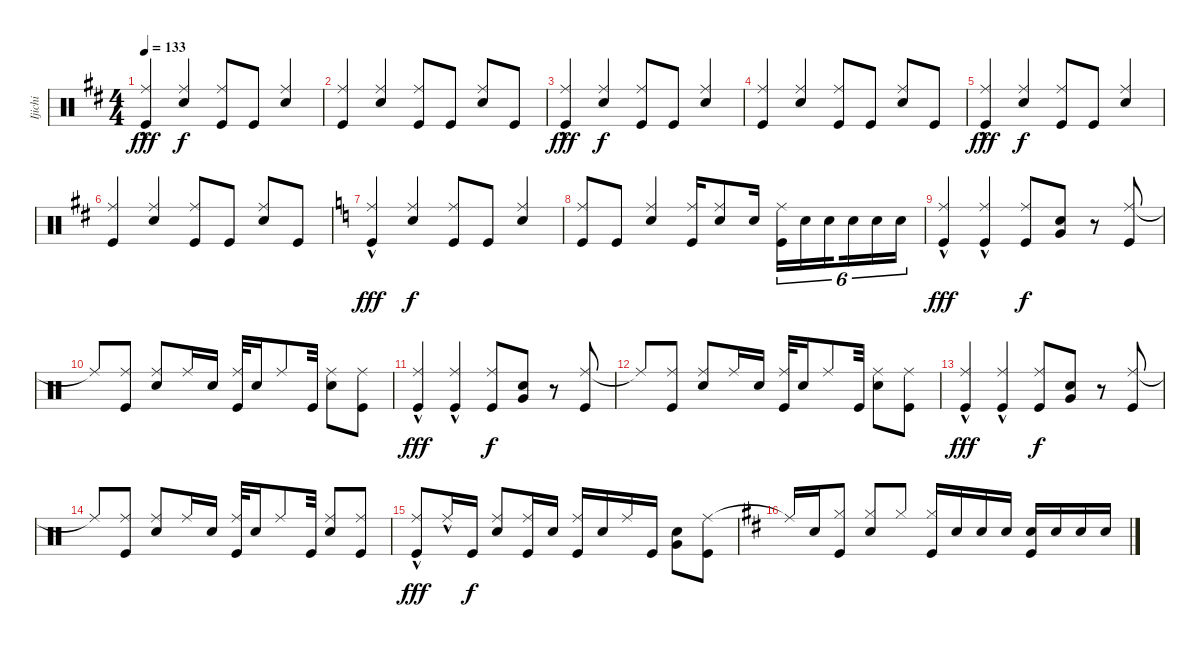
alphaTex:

\track ("Ijichi" "Ijichi") {instrument percussion}
\staff {score}
\articulation defaults
\ts (4 4)
\tempo 133
\clef neutral
\ks d
("Ride (middle)"{hac} "Kick (hit)").4{dy fff beam Up} ("Ride (middle)" "Snare (hit) 2").4{dy f beam Up} ("Ride (middle)" "Kick (hit)").8{beam Up} "Kick (hit)".8{beam Up} ("Ride (middle)" "Snare (hit) 2").4{beam Up} |
("Ride (middle)" "Kick (hit)").4{beam Up} ("Ride (middle)" "Snare (hit) 2").4{beam Up} ("Ride (middle)" "Kick (hit)").8{beam Up} "Kick (hit)".8{beam Up} ("Ride (middle)" "Snare (hit) 2").8{beam Up} "Kick (hit)".8{beam Up} |
("Ride (middle)"{hac} "Kick (hit)").4{dy fff beam Up} ("Ride (middle)" "Snare (hit) 2").4{dy f beam Up} ("Ride (middle)" "Kick (hit)").8{beam Up} "Kick (hit)".8{beam Up} ("Ride (middle)" "Snare (hit) 2").4{beam Up} |
("Ride (middle)" "Kick (hit)").4{beam Up} ("Ride (middle)" "Snare (hit) 2").4{beam Up} ("Ride (middle)" "Kick (hit)").8{beam Up} "Kick (hit)".8{beam Up} ("Ride (middle)" "Snare (hit) 2").8{beam Up} "Kick (hit)".8{beam Up} |
("Ride (middle)"{hac} "Kick (hit)").4{dy fff beam Up} ("Ride (middle)" "Snare (hit) 2").4{dy f beam Up} ("Ride (middle)" "Kick (hit)").8{beam Up} "Kick (hit)".8{beam Up} ("Ride (middle)" "Snare (hit) 2").4{beam Up} |
("Ride (middle)" "Kick (hit)").4{beam Up} ("Ride (middle)" "Snare (hit) 2").4{beam Up} ("Ride (middle)" "Kick (hit)").8{beam Up} "Kick (hit)".8{beam Up} ("Ride (middle)" "Snare (hit) 2").8{beam Up} "Kick (hit)".8{beam Up} |
\ks c
("Ride (middle)"{hac} "Kick (hit)").4{dy fff beam Up} ("Ride (middle)" "Snare (hit) 2").4{dy f beam Up} ("Ride (middle)" "Kick (hit)").8{beam Up} "Kick (hit)".8{beam Up} ("Ride (middle)" "Snare (hit) 2").4{beam Up} |
("Ride (middle)" "Kick (hit)").8{beam Up} "Kick (hit)".8{beam Up} ("Ride (middle)" "Snare (hit) 2").4{beam Up} ("Ride (middle)" "Kick (hit)").16{beam Up} ("Ride (middle)" "Snare (hit) 2").8{beam Up} "Snare (hit) 2".16{beam Up} ("Ride (middle)" "Kick (hit)").16{tu (6 4)} "Snare (hit) 2".16{tu (6 4)} "Snare (hit) 2".16{tu (6 4) beam splitsecondary} "Snare (hit) 2".16{tu (6 4)} "Snare (hit) 2".16{tu (6 4)} "Snare (hit) 2".16{tu (6 4)} |
("Ride (middle)"{hac} "Kick (hit)").4{dy fff beam Up} ("Ride (middle)"{hac} "Kick (hit)").4{beam Up} ("Ride (middle)" "Kick (hit)").8{dy f beam Up} ("Very Low Tom (hit)" "Snare (hit) 2").8{beam Up} r.8{beam Up} ("Ride (middle)" "Kick (hit)").8 |
"Ride (middle)"{t}.8{beam Up} ("Ride (middle)" "Kick (hit)").8{beam Up} ("Ride (middle)" "Snare (hit) 2").8{beam Up} "Ride (middle)".16{beam Up} "Snare (hit) 2".16{beam Up} ("Ride (middle)" "Kick (hit)").32{beam Up} "Snare (hit) 2".16 "Ride (middle)".8 "Kick (hit)".32 ("Ride (middle)" "Snare (hit) 2").8 ("Ride (middle)" "Kick (hit)").8 |
("Ride (middle)"{hac} "Kick (hit)").4{dy fff beam Up} ("Ride (middle)"{hac} "Kick (hit)").4{beam Up} ("Ride (middle)" "Kick (hit)").8{dy f beam Up} ("Very Low Tom (hit)" "Snare (hit) 2").8{beam Up} r.8{beam Up} ("Ride (middle)" "Kick (hit)").8 |
"Ride (middle)"{t}.8{beam Up} ("Ride (middle)" "Kick (hit)").8{beam Up} ("Ride (middle)" "Snare (hit) 2").8{beam Up} "Ride (middle)".16{beam Up} "Snare (hit) 2".16{beam Up} ("Ride (middle)" "Kick (hit)").32{beam Up} "Snare (hit) 2".16 "Ride (middle)".8 "Kick (hit)".32 ("Ride (middle)" "Snare (hit) 2").8 ("Ride (middle)" "Kick (hit)").8 |
("Ride (middle)"{hac} "Kick (hit)").4{dy fff beam Up} ("Ride (middle)"{hac} "Kick (hit)").4{beam Up} ("Ride (middle)" "Kick (hit)").8{dy f beam Up} ("Very Low Tom (hit)" "Snare (hit) 2").8{beam Up} r.8{beam Up} ("Ride (middle)" "Kick (hit)").8 |
"Ride (middle)"{t}.8{beam Up} ("Ride (middle)" "Kick (hit)").8{beam Up} ("Ride (middle)" "Snare (hit) 2").8{beam Up} "Ride (middle)".16{beam Up} "Snare (hit) 2".16{beam Up} ("Ride (middle)" "Kick (hit)").32{beam Up} "Snare (hit) 2".16 "Ride (middle)".8 "Kick (hit)".32 ("Ride (middle)" "Snare (hit) 2").8{beam Up} ("Ride (middle)" "Kick (hit)").8{beam Up} |
("Ride (middle)"{hac} "Kick (hit)").8{dy fff beam Up} "Ride (middle)"{hac}.16{beam Up} "Kick (hit)".16{dy f beam Up} ("Ride (middle)" "Snare (hit) 2").8{beam Up} ("Ride (middle)" "Kick (hit)").16{beam Up} "Snare (hit) 2".16 ("Ride (middle)" "Kick (hit)").16{beam Up} "Snare (hit) 2".16 "Ride (middle)".16 "Kick (hit)".16 ("Very Low Tom (hit)" "Snare (hit) 2").8 ("Ride (middle)" "Kick (hit)").8 |
\ks d "Ride (middle)"{t}.16{beam Up} "Snare (hit) 2".16{beam Up}
("Hi-Hat (closed)" "Kick (hit)").8{beam Up} ("Hi-Hat (closed)" "Snare (hit) 2").8{beam Up} "Hi-Hat (closed)".8{beam Up} ("Hi-Hat (closed)" "Kick (hit)").16{beam Up} "Snare (hit) 2".16 "Snare (hit) 2".16 "Snare (hit) 2".16 ("Snare (hit) 2" "Kick (hit)").16 "Snare (hit) 2".16 "Snare (hit) 2".16 "Snare (hit) 2".16
